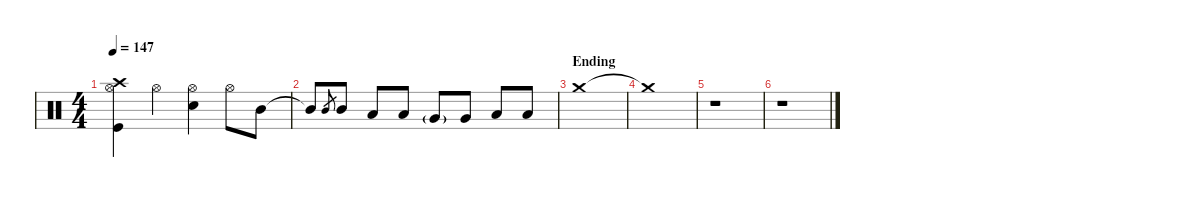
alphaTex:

\defaultSystemsLayout 4
\hideDynamics
\bracketExtendMode nobrackets
\singleTrackTrackNamePolicy hidden
\multiTrackTrackNamePolicy hidden
\firstSystemTrackNameMode fullname
\otherSystemsTrackNameOrientation horizontal
\track ("Percussion" "drm.") {instrument percussion}
\staff {score}
\articulation defaults
\ts (4 4)
\tempo 147
\clef neutral
\ks c
("Crash high (hit)" "Kick (hit)" "Hi-Hat (open)").4{dy mf beam Down} "Hi-Hat (open)".4{beam Down} ("Snare (hit) 2" "Hi-Hat (open)").4{dy f beam Down} "Hi-Hat (open)".8{dy mf beam Down} "Mid Tom (hit)".8{beam Down} |
"Mid Tom (hit)"{t}.8{dy f beam Up} "Mid Tom (hit)".8{gr dy mf beam Up} "Mid Tom (hit)".8{dy f beam Up} "Low Tom (hit)".8{beam Up} "Low Tom (hit)".8{beam Up} "Very Low Tom (hit)"{g}.8{dy mf beam Up} "Very Low Tom (hit)".8{beam Up} "Low Floor Tom (hit)".8{dy f beam Up} "Low Floor Tom (hit)".8{beam Up} |
\section ("" "Ending")
"Crash medium (hit)".1{dy ff beam Down} |
"Crash medium (hit)"{t}.1{dy f beam Down} |
r.1{beam Down} |
r.1{beam Down}
